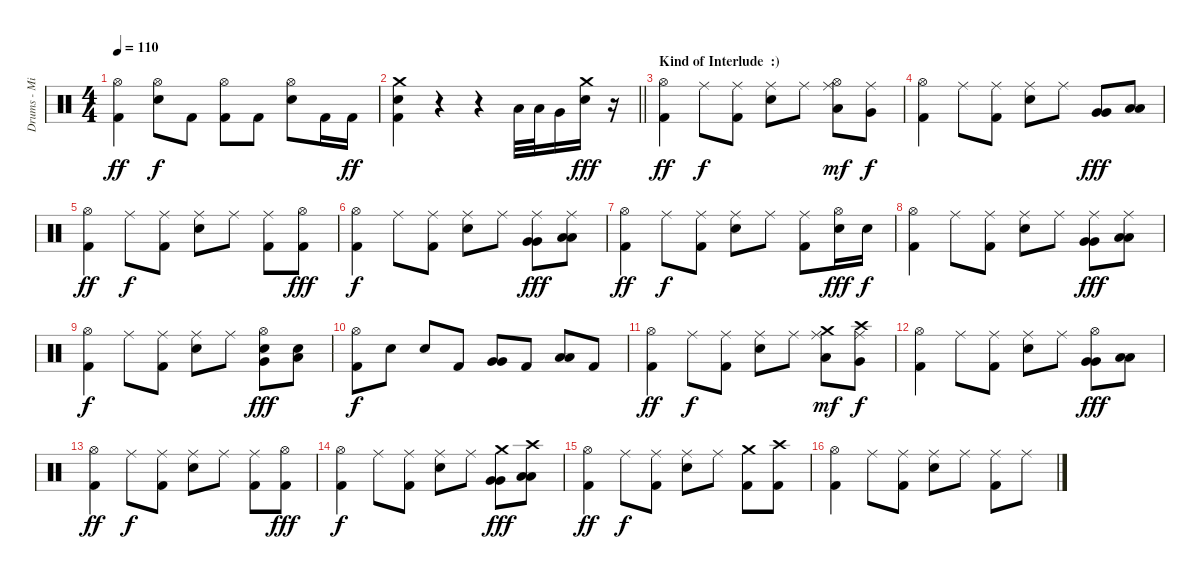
\track ("Drums - Mikko" "Drums - Mi") {instrument percussion}
\staff {score}
\articulation defaults
\ts (4 4)
\tempo 110
\clef neutral
\ks c
("Hi-Hat (open)" "Kick (hit) 2").4{dy ff} ("Hi-Hat (open)" "Snare (hit) 2").8{dy f} "Kick (hit) 2".8 ("Hi-Hat (open)" "Kick (hit) 2").8 "Kick (hit) 2".8 ("Hi-Hat (open)" "Snare (hit) 2").8 "Kick (hit) 2".16 "Kick (hit) 2".16{dy ff} |
\barLineRight lightlight
("Crash medium (hit)" "Snare (hit) 2" "Kick (hit) 2").4 r.4 r.4 "Low Tom (hit)".32 "Low Tom (hit)".32 "Very Low Tom (hit)".16 ("Crash medium (hit)" "Snare (hit) 2").16{dy fff} r.16 |
\section ("" "Kind of Interlude  :)")
("Hi-Hat (open)" "Kick (hit) 2").4{dy ff} "Ride (middle)".8{dy f} ("Ride (middle)" "Kick (hit) 2").8 ("Ride (middle)" "Snare (hit) 2").8 "Ride (middle)".8 ("Hi-Hat (open)" "Ride (middle)" "Low Tom (hit)").8{dy mf} ("Ride (middle)" "Very Low Tom (hit)").8{dy f} |
("Hi-Hat (open)" "Kick (hit) 2").4 "Ride (middle)".8 ("Ride (middle)" "Kick (hit) 2").8 ("Ride (middle)" "Snare (hit) 2").8 "Ride (middle)".8 ("Very Low Tom (hit)" "Very Low Tom (hit)").8{bd 60 dy fff} ("Low Floor Tom (hit)" "Low Floor Tom (hit)").8{bd 60} |
("Hi-Hat (open)" "Kick (hit) 2").4{dy ff} "Ride (middle)".8{dy f} ("Ride (middle)" "Kick (hit) 2").8 ("Ride (middle)" "Snare (hit) 2").8 "Ride (middle)".8 ("Ride (middle)" "Kick (hit) 2").8 ("Hi-Hat (open)" "Kick (hit) 2").8{dy fff} |
("Hi-Hat (open)" "Kick (hit) 2").4{dy f} "Ride (middle)".8 ("Ride (middle)" "Kick (hit) 2").8 ("Ride (middle)" "Snare (hit) 2").8 "Ride (middle)".8 ("Ride (middle)" "Very Low Tom (hit)" "Very Low Tom (hit)").8{bd 60 dy fff} ("Ride (middle)" "Low Floor Tom (hit)" "Low Floor Tom (hit)").8{bd 60} |
("Hi-Hat (open)" "Kick (hit) 2").4{dy ff} "Ride (middle)".8{dy f} ("Ride (middle)" "Kick (hit) 2").8 ("Ride (middle)" "Snare (hit) 2").8 "Ride (middle)".8 ("Ride (middle)" "Kick (hit) 2").8 ("Hi-Hat (open)" "Snare (hit) 2").16{dy fff} "Snare (hit) 2".16{dy f} |
("Hi-Hat (open)" "Kick (hit) 2").4 "Ride (middle)".8 ("Ride (middle)" "Kick (hit) 2").8 ("Ride (middle)" "Snare (hit) 2").8 "Ride (middle)".8 ("Ride (middle)" "Very Low Tom (hit)" "Very Low Tom (hit)").8{bd 60 dy fff} ("Ride (middle)" "Low Floor Tom (hit)" "Low Floor Tom (hit)").8{bd 60} |
("Hi-Hat (open)" "Kick (hit) 2").4{dy f} "Ride (middle)".8 ("Ride (middle)" "Kick (hit) 2").8 ("Ride (middle)" "Snare (hit) 2").8 "Ride (middle)".8 ("Hi-Hat (open)" "Snare (hit) 2" "Very Low Tom (hit)").8{bd 60 dy fff} ("Snare (hit) 2" "Low Floor Tom (hit)").8{bd 60} |
("Hi-Hat (open)" "Kick (hit) 2").8{dy f} "Snare (hit) 2".8 "Snare (hit) 2".8 "Kick (hit) 2".8 ("Very Low Tom (hit)" "Very Low Tom (hit)").8 "Kick (hit) 2".8 ("Low Floor Tom (hit)" "Low Floor Tom (hit)").8 "Kick (hit) 2".8 |
("Hi-Hat (open)" "Kick (hit) 2").4{dy ff} "Ride (middle)".8{dy f} ("Ride (middle)" "Kick (hit) 2").8 ("Ride (middle)" "Snare (hit) 2").8 "Ride (middle)".8 ("Crash medium (hit)" "Ride (middle)" "Low Tom (hit)").8{dy mf} ("Crash high (hit)" "Ride (middle)" "Very Low Tom (hit)").8{dy f} |
("Hi-Hat (open)" "Kick (hit) 2").4 "Ride (middle)".8 ("Ride (middle)" "Kick (hit) 2").8 ("Ride (middle)" "Snare (hit) 2").8 "Ride (middle)".8 ("Hi-Hat (open)" "Very Low Tom (hit)" "Very Low Tom (hit)").8{bd 60 dy fff} ("Low Floor Tom (hit)" "Low Floor Tom (hit)").8{bd 60} |
("Hi-Hat (open)" "Kick (hit) 2").4{dy ff} "Ride (middle)".8{dy f} ("Ride (middle)" "Kick (hit) 2").8 ("Ride (middle)" "Snare (hit) 2").8 "Ride (middle)".8 ("Ride (middle)" "Kick (hit) 2").8 ("Hi-Hat (open)" "Kick (hit) 2").8{dy fff} |
("Hi-Hat (open)" "Kick (hit) 2").4{dy f} "Ride (middle)".8 ("Ride (middle)" "Kick (hit) 2").8 ("Ride (middle)" "Snare (hit) 2").8 "Ride (middle)".8 ("Crash medium (hit)" "Very Low Tom (hit)" "Very Low Tom (hit)").8{bd 60 dy fff} ("Crash high (hit)" "Low Floor Tom (hit)" "Low Floor Tom (hit)").8{bd 60} |
("Hi-Hat (open)" "Kick (hit) 2").4{dy ff} "Ride (middle)".8{dy f} ("Ride (middle)" "Kick (hit) 2").8 ("Ride (middle)" "Snare (hit) 2").8 "Ride (middle)".8 ("Crash medium (hit)" "Kick (hit) 2").8 ("Crash high (hit)" "Kick (hit) 2").8 |
("Hi-Hat (open)" "Kick (hit) 2").4 "Ride (middle)".8 ("Ride (middle)" "Kick (hit) 2").8 ("Ride (middle)" "Snare (hit) 2").8 "Ride (middle)".8 ("Ride (middle)" "Kick (hit) 2").8{bd 60} "Ride (middle)".8{bd 60}
